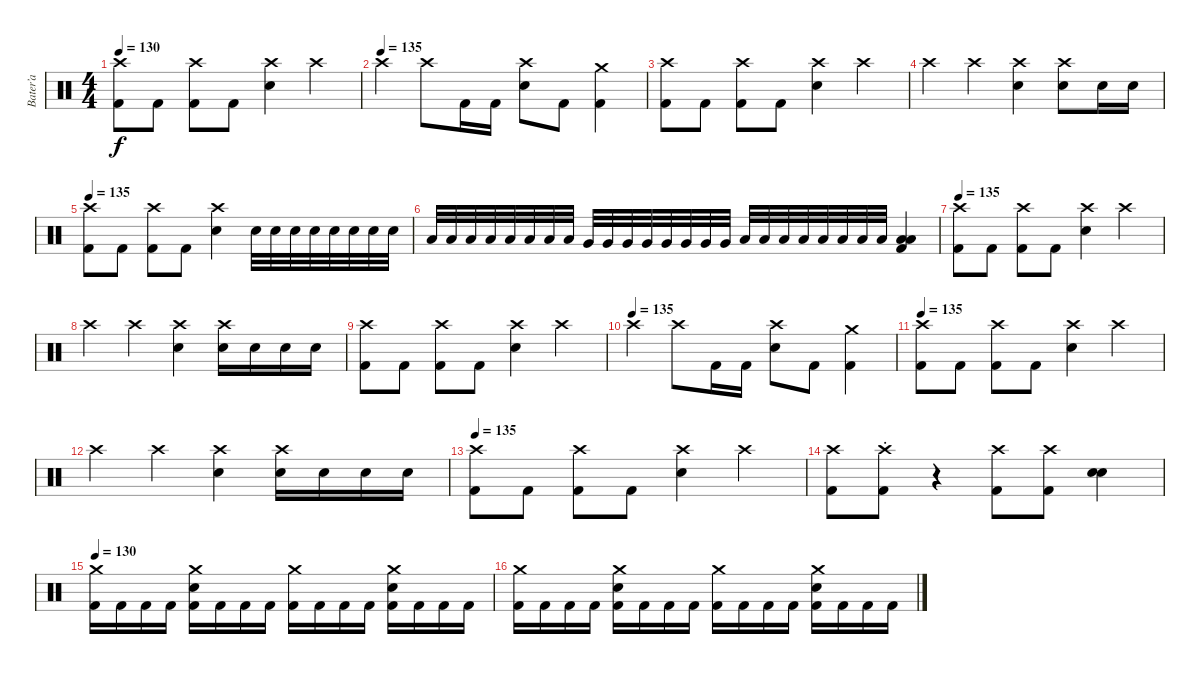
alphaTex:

\track ("Bater’a" "Bater’a") {instrument percussion}
\staff {score}
\articulation defaults
\ts (4 4)
\tempo 130
\clef neutral
\ks c
("Crash high (hit)" "Kick (hit) 2").8{dy f} "Kick (hit) 2".8 ("Crash high (hit)" "Kick (hit) 2").8 "Kick (hit) 2".8 ("Crash high (hit)" "Electric Snare (hit)").4 "Crash high (hit)".4 |
\tempo (135)
"Crash high (hit)".4 "Crash high (hit)".8 "Kick (hit) 2".16 "Kick (hit) 2".16 ("Crash high (hit)" "Electric Snare (hit)").8 "Kick (hit) 2".8 ("Crash medium (hit)" "Kick (hit) 2").4 |
("Crash high (hit)" "Kick (hit) 2").8 "Kick (hit) 2".8 ("Crash high (hit)" "Kick (hit) 2").8 "Kick (hit) 2".8 ("Crash high (hit)" "Electric Snare (hit)").4 "Crash high (hit)".4 |
"Crash high (hit)".4 "Crash high (hit)".4 ("Crash high (hit)" "Electric Snare (hit)").4 ("Crash high (hit)" "Electric Snare (hit)").8 "Electric Snare (hit)".16 "Electric Snare (hit)".16 |
\tempo 135
("Crash high (hit)" "Kick (hit) 2").8 "Kick (hit) 2".8 ("Crash high (hit)" "Kick (hit) 2").8 "Kick (hit) 2".8 ("Crash high (hit)" "Electric Snare (hit)").4 "Electric Snare (hit)".32 "Electric Snare (hit)".32 "Electric Snare (hit)".32 "Electric Snare (hit)".32 "Electric Snare (hit)".32 "Electric Snare (hit)".32 "Electric Snare (hit)".32 "Electric Snare (hit)".32 |
"Low Tom (hit)".32 "Low Tom (hit)".32 "Low Tom (hit)".32 "Low Tom (hit)".32 "Low Tom (hit)".32 "Low Tom (hit)".32 "Low Tom (hit)".32 "Low Tom (hit)".32 "Very Low Tom (hit)".32 "Very Low Tom (hit)".32 "Very Low Tom (hit)".32 "Very Low Tom (hit)".32 "Very Low Tom (hit)".32 "Very Low Tom (hit)".32 "Very Low Tom (hit)".32 "Very Low Tom (hit)".32 "Low Floor Tom (hit)".32 "Low Floor Tom (hit)".32 "Low Floor Tom (hit)".32 "Low Floor Tom (hit)".32 "Low Floor Tom (hit)".32 "Low Floor Tom (hit)".32 "Low Floor Tom (hit)".32 "Low Floor Tom (hit)".32 ("Low Tom (hit)" "Low Floor Tom (hit)" "Kick (hit) 2").4 |
\tempo 135
("Crash high (hit)" "Kick (hit) 2").8 "Kick (hit) 2".8 ("Crash high (hit)" "Kick (hit) 2").8 "Kick (hit) 2".8 ("Crash high (hit)" "Electric Snare (hit)").4 "Crash high (hit)".4 |
"Crash high (hit)".4 "Crash high (hit)".4 ("Crash high (hit)" "Electric Snare (hit)").4 ("Crash high (hit)" "Electric Snare (hit)").16 "Electric Snare (hit)".16 "Electric Snare (hit)".16 "Electric Snare (hit)".16 |
("Crash high (hit)" "Kick (hit) 2").8 "Kick (hit) 2".8 ("Crash high (hit)" "Kick (hit) 2").8 "Kick (hit) 2".8 ("Crash high (hit)" "Electric Snare (hit)").4 "Crash high (hit)".4 |
\tempo (135)
"Crash high (hit)".4 "Crash high (hit)".8 "Kick (hit) 2".16 "Kick (hit) 2".16 ("Crash high (hit)" "Electric Snare (hit)").8 "Kick (hit) 2".8 ("Crash medium (hit)" "Kick (hit) 2").4 |
\tempo 135
("Crash high (hit)" "Kick (hit) 2").8 "Kick (hit) 2".8 ("Crash high (hit)" "Kick (hit) 2").8 "Kick (hit) 2".8 ("Crash high (hit)" "Electric Snare (hit)").4 "Crash high (hit)".4 |
"Crash high (hit)".4 "Crash high (hit)".4 ("Crash high (hit)" "Electric Snare (hit)").4 ("Crash high (hit)" "Electric Snare (hit)").16 "Electric Snare (hit)".16 "Electric Snare (hit)".16 "Electric Snare (hit)".16 |
\tempo 135
("Crash high (hit)" "Kick (hit) 2").8 "Kick (hit) 2".8 ("Crash high (hit)" "Kick (hit) 2").8 "Kick (hit) 2".8 ("Crash high (hit)" "Electric Snare (hit)").4 "Crash high (hit)".4 |
("Crash high (hit)" "Kick (hit) 2").8{volume 12} ("Crash high (hit)"{st} "Kick (hit) 2").8 r.4 ("Crash high (hit)" "Kick (hit) 2").8 ("Crash high (hit)" "Kick (hit) 2").8 ("Electric Snare (hit)" "Electric Snare (hit)").4 |
\tempo 130
("Crash medium (hit)" "Kick (hit) 2").16 "Kick (hit) 2".16 "Kick (hit) 2".16 "Kick (hit) 2".16 ("Crash medium (hit)" "Electric Snare (hit)" "Kick (hit) 2").16 "Kick (hit) 2".16 "Kick (hit) 2".16 "Kick (hit) 2".16 ("Crash medium (hit)" "Kick (hit) 2").16 "Kick (hit) 2".16 "Kick (hit) 2".16 "Kick (hit) 2".16 ("Crash medium (hit)" "Electric Snare (hit)" "Kick (hit) 2").16 "Kick (hit) 2".16 "Kick (hit) 2".16 "Kick (hit) 2".16 |
("Crash medium (hit)" "Kick (hit) 2").16 "Kick (hit) 2".16 "Kick (hit) 2".16 "Kick (hit) 2".16 ("Crash medium (hit)" "Electric Snare (hit)" "Kick (hit) 2").16 "Kick (hit) 2".16 "Kick (hit) 2".16 "Kick (hit) 2".16 ("Crash medium (hit)" "Kick (hit) 2").16 "Kick (hit) 2".16 "Kick (hit) 2".16 "Kick (hit) 2".16 ("Crash medium (hit)" "Electric Snare (hit)" "Kick (hit) 2").16 "Kick (hit) 2".16 "Kick (hit) 2".16 "Kick (hit) 2".16
